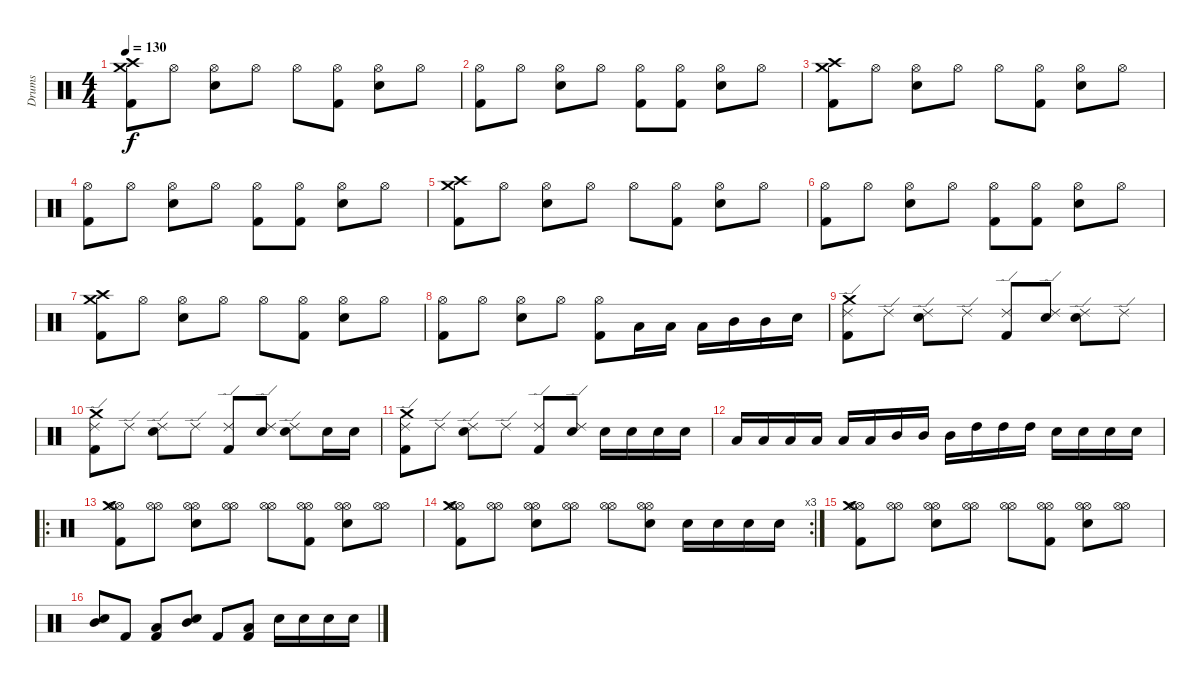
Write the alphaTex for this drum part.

\track ("Drums" "Drums") {instrument percussion}
\staff {score}
\articulation defaults
\ts (4 4)
\tempo 130
\clef neutral
\ks c
("Crash medium (hit)" "Crash high (hit)" "Kick (hit) 2").8{dy f} "Hi-Hat (open)".8 ("Hi-Hat (open)" "Electric Snare (hit)").8 "Hi-Hat (open)".8 "Hi-Hat (open)".8 ("Hi-Hat (open)" "Kick (hit) 2").8 ("Hi-Hat (open)" "Electric Snare (hit)").8 "Hi-Hat (open)".8 |
("Hi-Hat (open)" "Kick (hit) 2").8 "Hi-Hat (open)".8 ("Hi-Hat (open)" "Electric Snare (hit)").8 "Hi-Hat (open)".8 ("Hi-Hat (open)" "Kick (hit) 2").8 ("Hi-Hat (open)" "Kick (hit) 2").8 ("Hi-Hat (open)" "Electric Snare (hit)").8 "Hi-Hat (open)".8 |
("Crash medium (hit)" "Crash high (hit)" "Kick (hit) 2").8 "Hi-Hat (open)".8 ("Hi-Hat (open)" "Electric Snare (hit)").8 "Hi-Hat (open)".8 "Hi-Hat (open)".8 ("Hi-Hat (open)" "Kick (hit) 2").8 ("Hi-Hat (open)" "Electric Snare (hit)").8 "Hi-Hat (open)".8 |
("Hi-Hat (open)" "Kick (hit) 2").8 "Hi-Hat (open)".8 ("Hi-Hat (open)" "Electric Snare (hit)").8 "Hi-Hat (open)".8 ("Hi-Hat (open)" "Kick (hit) 2").8 ("Hi-Hat (open)" "Kick (hit) 2").8 ("Hi-Hat (open)" "Electric Snare (hit)").8 "Hi-Hat (open)".8 |
("Crash medium (hit)" "Crash high (hit)" "Kick (hit) 2").8 "Hi-Hat (open)".8 ("Hi-Hat (open)" "Electric Snare (hit)").8 "Hi-Hat (open)".8 "Hi-Hat (open)".8 ("Hi-Hat (open)" "Kick (hit) 2").8 ("Hi-Hat (open)" "Electric Snare (hit)").8 "Hi-Hat (open)".8 |
("Hi-Hat (open)" "Kick (hit) 2").8 "Hi-Hat (open)".8 ("Hi-Hat (open)" "Electric Snare (hit)").8 "Hi-Hat (open)".8 ("Hi-Hat (open)" "Kick (hit) 2").8 ("Hi-Hat (open)" "Kick (hit) 2").8 ("Hi-Hat (open)" "Electric Snare (hit)").8 "Hi-Hat (open)".8 |
("Crash medium (hit)" "Crash high (hit)" "Kick (hit) 2").8 "Hi-Hat (open)".8 ("Hi-Hat (open)" "Electric Snare (hit)").8 "Hi-Hat (open)".8 "Hi-Hat (open)".8 ("Hi-Hat (open)" "Kick (hit) 2").8 ("Hi-Hat (open)" "Electric Snare (hit)").8 "Hi-Hat (open)".8 |
("Hi-Hat (open)" "Kick (hit) 2").8 "Hi-Hat (open)".8 ("Hi-Hat (open)" "Electric Snare (hit)").8 "Hi-Hat (open)".8 ("Hi-Hat (open)" "Kick (hit) 2").8 "Low Tom (hit)".16 "Low Tom (hit)".16 "Low Tom (hit)".16 "Mid Tom (hit)".16 "Mid Tom (hit)".16 "Electric Snare (hit)".16 |
("Ride (edge) 2" "Crash medium (hit)" "Kick (hit) 2").8 "Ride (edge) 2".8 ("Ride (edge) 2" "Electric Snare (hit)").8 "Ride (edge) 2".8 ("Ride (edge) 2" "Kick (hit) 2").8 ("Ride (edge) 2" "Electric Snare (hit)").8 ("Ride (edge) 2" "Electric Snare (hit)").8 "Ride (edge) 2".8 |
("Ride (edge) 2" "Crash medium (hit)" "Kick (hit) 2").8 "Ride (edge) 2".8 ("Ride (edge) 2" "Electric Snare (hit)").8 "Ride (edge) 2".8 ("Ride (edge) 2" "Kick (hit) 2").8 ("Ride (edge) 2" "Electric Snare (hit)").8 ("Ride (edge) 2" "Electric Snare (hit)").8 "Electric Snare (hit)".16 "Electric Snare (hit)".16 |
("Ride (edge) 2" "Crash medium (hit)" "Kick (hit) 2").8 "Ride (edge) 2".8 ("Ride (edge) 2" "Electric Snare (hit)").8 "Ride (edge) 2".8 ("Ride (edge) 2" "Kick (hit) 2").8 ("Ride (edge) 2" "Electric Snare (hit)").8 "Electric Snare (hit)".16 "Electric Snare (hit)".16 "Electric Snare (hit)".16 "Electric Snare (hit)".16 |
"Low Floor Tom (hit)".16 "Low Floor Tom (hit)".16 "Low Floor Tom (hit)".16 "Low Tom (hit)".16 "Low Tom (hit)".16 "Low Tom (hit)".16 "Mid Tom (hit)".16 "Mid Tom (hit)".16 "Mid Tom (hit)".16 "High Tom (hit)".16 "High Tom (hit)".16 "High Tom (hit)".16 "Electric Snare (hit)".16 "Electric Snare (hit)".16 "Electric Snare (hit)".16 "Electric Snare (hit)".16 |
\ro
("Hi-Hat (open)" "Hi-Hat (open)" "Crash medium (hit)" "Kick (hit) 2").8 ("Hi-Hat (open)" "Hi-Hat (open)").8 ("Hi-Hat (open)" "Hi-Hat (open)" "Electric Snare (hit)").8 ("Hi-Hat (open)" "Hi-Hat (open)").8 ("Hi-Hat (open)" "Hi-Hat (open)").8 ("Hi-Hat (open)" "Hi-Hat (open)" "Kick (hit) 2").8 ("Hi-Hat (open)" "Hi-Hat (open)" "Electric Snare (hit)").8 ("Hi-Hat (open)" "Hi-Hat (open)").8 |
\rc 3
("Hi-Hat (open)" "Hi-Hat (open)" "Crash medium (hit)" "Kick (hit) 2").8 ("Hi-Hat (open)" "Hi-Hat (open)").8 ("Hi-Hat (open)" "Hi-Hat (open)" "Electric Snare (hit)").8 ("Hi-Hat (open)" "Hi-Hat (open)").8 ("Hi-Hat (open)" "Hi-Hat (open)").8 ("Hi-Hat (open)" "Hi-Hat (open)" "Electric Snare (hit)").8 "Electric Snare (hit)".16 "Electric Snare (hit)".16 "Electric Snare (hit)".16 "Electric Snare (hit)".16 |
("Hi-Hat (open)" "Hi-Hat (open)" "Crash medium (hit)" "Kick (hit) 2").8 ("Hi-Hat (open)" "Hi-Hat (open)").8 ("Hi-Hat (open)" "Hi-Hat (open)" "Electric Snare (hit)").8 ("Hi-Hat (open)" "Hi-Hat (open)").8 ("Hi-Hat (open)" "Hi-Hat (open)").8 ("Hi-Hat (open)" "Hi-Hat (open)" "Kick (hit) 2").8 ("Hi-Hat (open)" "Hi-Hat (open)" "Electric Snare (hit)").8 ("Hi-Hat (open)" "Hi-Hat (open)").8 |
("Mid Tom (hit)" "Electric Snare (hit)").8 "Kick (hit) 2".8 ("Low Tom (hit)" "Kick (hit) 2").8 ("Mid Tom (hit)" "Electric Snare (hit)").8 "Kick (hit) 2".8 ("Low Tom (hit)" "Kick (hit) 2").8 "Electric Snare (hit)".16 "Electric Snare (hit)".16 "Electric Snare (hit)".16 "Electric Snare (hit)".16
